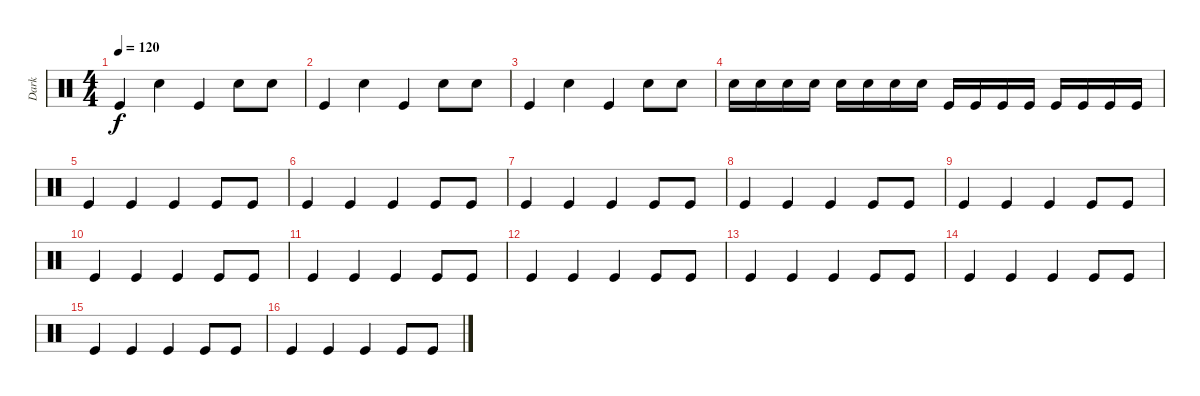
\track ("Dark" "Dark") {instrument percussion}
\staff {score}
\articulation defaults
\ts (4 4)
\tempo 120
\clef neutral
\ks c "Kick (hit)".4{dy f} "Snare (hit) 2".4 "Kick (hit)".4 "Snare (hit) 2".8 "Snare (hit) 2".8
|
"Kick (hit)".4 "Snare (hit) 2".4 "Kick (hit)".4 "Snare (hit) 2".8 "Snare (hit) 2".8 |
"Kick (hit)".4 "Snare (hit) 2".4 "Kick (hit)".4 "Snare (hit) 2".8 "Snare (hit) 2".8 |
"Snare (hit) 2".16 "Snare (hit) 2".16 "Snare (hit) 2".16 "Snare (hit) 2".16 "Snare (hit) 2".16 "Snare (hit) 2".16 "Snare (hit) 2".16 "Snare (hit) 2".16 "Kick (hit)".16 "Kick (hit)".16 "Kick (hit)".16 "Kick (hit)".16 "Kick (hit)".16 "Kick (hit)".16 "Kick (hit)".16 "Kick (hit)".16 |
"Kick (hit)".4 "Kick (hit)".4 "Kick (hit)".4 "Kick (hit)".8 "Kick (hit)".8 |
"Kick (hit)".4 "Kick (hit)".4 "Kick (hit)".4 "Kick (hit)".8 "Kick (hit)".8 |
"Kick (hit)".4 "Kick (hit)".4 "Kick (hit)".4 "Kick (hit)".8 "Kick (hit)".8 |
"Kick (hit)".4 "Kick (hit)".4 "Kick (hit)".4 "Kick (hit)".8 "Kick (hit)".8 |
"Kick (hit)".4 "Kick (hit)".4 "Kick (hit)".4 "Kick (hit)".8 "Kick (hit)".8 |
"Kick (hit)".4 "Kick (hit)".4 "Kick (hit)".4 "Kick (hit)".8 "Kick (hit)".8 |
"Kick (hit)".4 "Kick (hit)".4 "Kick (hit)".4 "Kick (hit)".8 "Kick (hit)".8 |
"Kick (hit)".4 "Kick (hit)".4 "Kick (hit)".4 "Kick (hit)".8 "Kick (hit)".8 |
"Kick (hit)".4 "Kick (hit)".4 "Kick (hit)".4 "Kick (hit)".8 "Kick (hit)".8 |
"Kick (hit)".4 "Kick (hit)".4 "Kick (hit)".4 "Kick (hit)".8 "Kick (hit)".8 |
"Kick (hit)".4 "Kick (hit)".4 "Kick (hit)".4 "Kick (hit)".8 "Kick (hit)".8 |
"Kick (hit)".4 "Kick (hit)".4 "Kick (hit)".4 "Kick (hit)".8 "Kick (hit)".8
